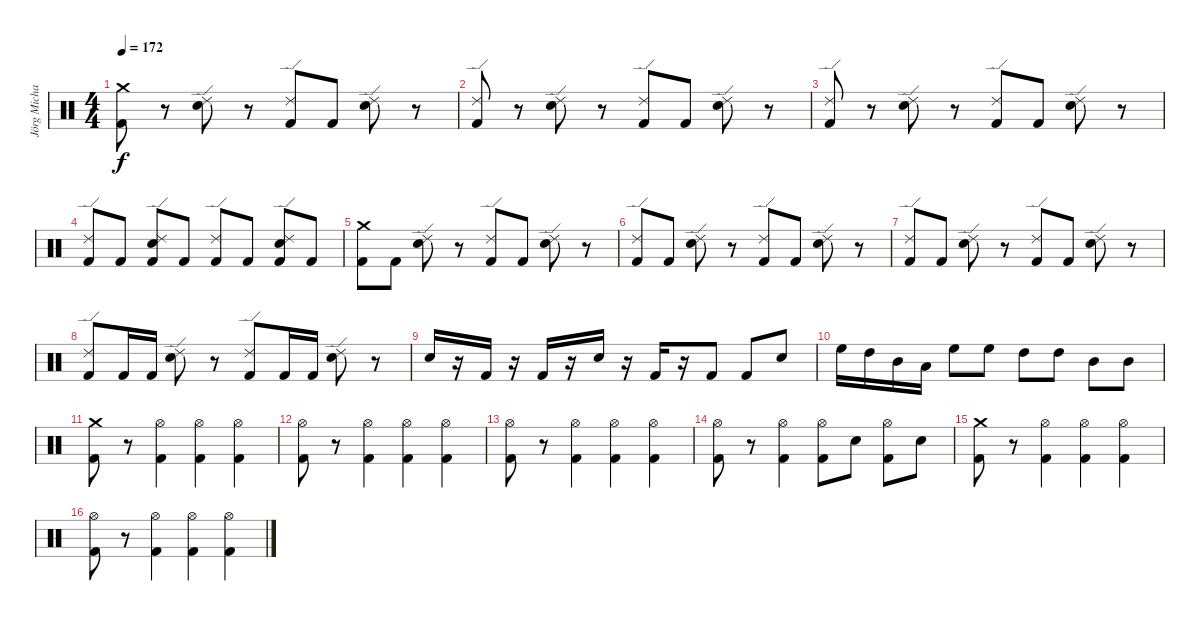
\track ("Jörg Michael" "Jörg Micha") {instrument percussion}
\staff {score}
\articulation defaults
\ts (4 4)
\tempo 172
\clef neutral
\ks c
("Crash medium (hit)" "Kick (hit) 2").8{dy f} r.8 ("Ride (edge) 2" "Electric Snare (hit)").8 r.8 ("Ride (edge) 2" "Kick (hit) 2").8 "Kick (hit) 2".8 ("Ride (edge) 2" "Electric Snare (hit)").8 r.8 |
("Ride (edge) 2" "Kick (hit) 2").8 r.8 ("Ride (edge) 2" "Electric Snare (hit)").8 r.8 ("Ride (edge) 2" "Kick (hit) 2").8 "Kick (hit) 2".8 ("Ride (edge) 2" "Electric Snare (hit)").8 r.8 |
("Ride (edge) 2" "Kick (hit) 2").8 r.8 ("Ride (edge) 2" "Electric Snare (hit)").8 r.8 ("Ride (edge) 2" "Kick (hit) 2").8 "Kick (hit) 2".8 ("Ride (edge) 2" "Electric Snare (hit)").8 r.8 |
("Ride (edge) 2" "Kick (hit) 2").8 "Kick (hit) 2".8 ("Kick (hit) 2" "Ride (edge) 2" "Electric Snare (hit)").8 "Kick (hit) 2".8 ("Kick (hit) 2" "Ride (edge) 2").8 "Kick (hit) 2".8 ("Kick (hit) 2" "Ride (edge) 2" "Electric Snare (hit)").8 "Kick (hit) 2".8 |
("Crash medium (hit)" "Kick (hit) 2").8 "Kick (hit) 2".8 ("Ride (edge) 2" "Electric Snare (hit)").8 r.8 ("Ride (edge) 2" "Kick (hit) 2").8 "Kick (hit) 2".8 ("Ride (edge) 2" "Electric Snare (hit)").8 r.8 |
("Ride (edge) 2" "Kick (hit) 2").8 "Kick (hit) 2".8 ("Ride (edge) 2" "Electric Snare (hit)").8 r.8 ("Ride (edge) 2" "Kick (hit) 2").8 "Kick (hit) 2".8 ("Ride (edge) 2" "Electric Snare (hit)").8 r.8 |
("Ride (edge) 2" "Kick (hit) 2").8 "Kick (hit) 2".8 ("Ride (edge) 2" "Electric Snare (hit)").8 r.8 ("Ride (edge) 2" "Kick (hit) 2").8 "Kick (hit) 2".8 ("Ride (edge) 2" "Electric Snare (hit)").8 r.8 |
("Ride (edge) 2" "Kick (hit) 2").8 "Kick (hit) 2".16 "Kick (hit) 2".16 ("Ride (edge) 2" "Electric Snare (hit)").8 r.8 ("Ride (edge) 2" "Kick (hit) 2").8 "Kick (hit) 2".16 "Kick (hit) 2".16 ("Ride (edge) 2" "Electric Snare (hit)").8 r.8 |
"Electric Snare (hit)".16 r.16 "Kick (hit) 2".16 r.16 "Kick (hit) 2".16 r.16 "Electric Snare (hit)".16 r.16 "Kick (hit) 2".16 r.16 "Kick (hit) 2".8 "Kick (hit) 2".8 "Electric Snare (hit)".8 |
"High Floor Tom (hit)".16 "High Tom (hit)".16 "Mid Tom (hit)".16 "Low Tom (hit)".16 "High Floor Tom (hit)".8 "High Floor Tom (hit)".8 "High Tom (hit)".8 "High Tom (hit)".8 "Mid Tom (hit)".8 "Mid Tom (hit)".8 |
("Kick (hit) 2" "Crash medium (hit)").8 r.8 ("Kick (hit) 2" "Hi-Hat (open)").4 ("Hi-Hat (open)" "Kick (hit) 2").4 ("Kick (hit) 2" "Hi-Hat (open)").4 |
("Hi-Hat (open)" "Kick (hit) 2").8 r.8 ("Kick (hit) 2" "Hi-Hat (open)").4 ("Hi-Hat (open)" "Kick (hit) 2").4 ("Kick (hit) 2" "Hi-Hat (open)").4 |
("Hi-Hat (open)" "Kick (hit) 2").8 r.8 ("Kick (hit) 2" "Hi-Hat (open)").4 ("Hi-Hat (open)" "Kick (hit) 2").4 ("Kick (hit) 2" "Hi-Hat (open)").4 |
("Hi-Hat (open)" "Kick (hit) 2").8 r.8 ("Kick (hit) 2" "Hi-Hat (open)").4 ("Hi-Hat (open)" "Kick (hit) 2").8 "Electric Snare (hit)".8 ("Kick (hit) 2" "Hi-Hat (open)").8 "Electric Snare (hit)".8 |
("Kick (hit) 2" "Crash medium (hit)").8 r.8 ("Kick (hit) 2" "Hi-Hat (open)").4 ("Hi-Hat (open)" "Kick (hit) 2").4 ("Kick (hit) 2" "Hi-Hat (open)").4 |
("Hi-Hat (open)" "Kick (hit) 2").8 r.8 ("Kick (hit) 2" "Hi-Hat (open)").4 ("Hi-Hat (open)" "Kick (hit) 2").4 ("Kick (hit) 2" "Hi-Hat (open)").4
